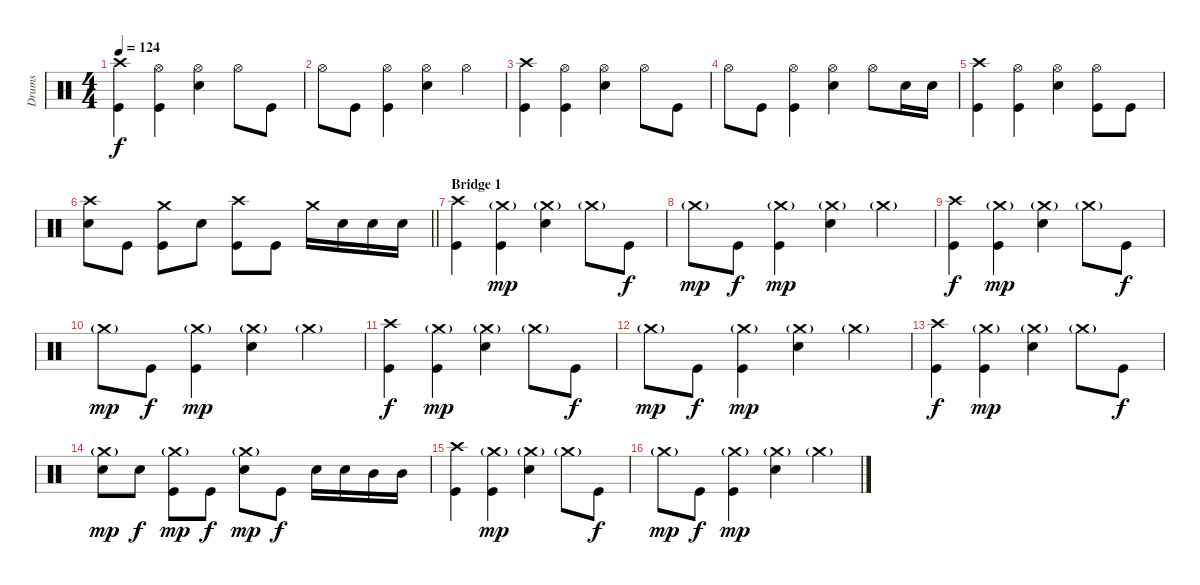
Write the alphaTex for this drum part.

\track ("Drums" "Drums") {instrument percussion}
\staff {score}
\articulation defaults
\ts (4 4)
\tempo 124
\clef neutral
\ks c
("Crash high (hit)" "Kick (hit)").4{dy f} ("Hi-Hat (open)" "Kick (hit)").4 ("Hi-Hat (open)" "Snare (hit) 2").4 "Hi-Hat (open)".8 "Kick (hit)".8 |
"Hi-Hat (open)".8 "Kick (hit)".8 ("Hi-Hat (open)" "Kick (hit)").4 ("Hi-Hat (open)" "Snare (hit) 2").4 "Hi-Hat (open)".4 |
("Crash high (hit)" "Kick (hit)").4 ("Hi-Hat (open)" "Kick (hit)").4 ("Hi-Hat (open)" "Snare (hit) 2").4 "Hi-Hat (open)".8 "Kick (hit)".8 |
"Hi-Hat (open)".8 "Kick (hit)".8 ("Hi-Hat (open)" "Kick (hit)").4 ("Hi-Hat (open)" "Snare (hit) 2").4 "Hi-Hat (open)".8 "Snare (hit) 2".16 "Snare (hit) 2".16 |
("Crash high (hit)" "Kick (hit)").4 ("Hi-Hat (open)" "Kick (hit)").4 ("Hi-Hat (open)" "Snare (hit) 2").4 ("Hi-Hat (open)" "Kick (hit)").8 "Kick (hit)".8 |
\barLineRight lightlight
("Crash high (hit)" "Snare (hit) 2").8 "Kick (hit)".8 ("Crash medium (hit)" "Kick (hit)").8 "Snare (hit) 2".8 ("Crash high (hit)" "Kick (hit)").8 "Kick (hit)".8 "Crash medium (hit)".16 "Snare (hit) 2".16 "Snare (hit) 2".16 "Snare (hit) 2".16 |
\section ("" "Bridge 1")
("Crash high (hit)" "Kick (hit)").4 ("Crash medium (hit)"{g} "Kick (hit)").4{dy mp} ("Crash medium (hit)"{g} "Snare (hit) 2").4 "Crash medium (hit)"{g}.8 "Kick (hit)".8{dy f} |
"Crash medium (hit)"{g}.8{dy mp} "Kick (hit)".8{dy f} ("Crash medium (hit)"{g} "Kick (hit)").4{dy mp} ("Crash medium (hit)"{g} "Snare (hit) 2").4 "Crash medium (hit)"{g}.4 |
("Crash high (hit)" "Kick (hit)").4{dy f} ("Crash medium (hit)"{g} "Kick (hit)").4{dy mp} ("Crash medium (hit)"{g} "Snare (hit) 2").4 "Crash medium (hit)"{g}.8 "Kick (hit)".8{dy f} |
"Crash medium (hit)"{g}.8{dy mp} "Kick (hit)".8{dy f} ("Crash medium (hit)"{g} "Kick (hit)").4{dy mp} ("Crash medium (hit)"{g} "Snare (hit) 2").4 "Crash medium (hit)"{g}.4 |
("Crash high (hit)" "Kick (hit)").4{dy f} ("Crash medium (hit)"{g} "Kick (hit)").4{dy mp} ("Crash medium (hit)"{g} "Snare (hit) 2").4 "Crash medium (hit)"{g}.8 "Kick (hit)".8{dy f} |
"Crash medium (hit)"{g}.8{dy mp} "Kick (hit)".8{dy f} ("Crash medium (hit)"{g} "Kick (hit)").4{dy mp} ("Crash medium (hit)"{g} "Snare (hit) 2").4 "Crash medium (hit)"{g}.4 |
("Crash high (hit)" "Kick (hit)").4{dy f} ("Crash medium (hit)"{g} "Kick (hit)").4{dy mp} ("Crash medium (hit)"{g} "Snare (hit) 2").4 "Crash medium (hit)"{g}.8 "Kick (hit)".8{dy f} |
("Crash medium (hit)"{g} "Snare (hit) 2").8{dy mp} "Snare (hit) 2".8{dy f} ("Crash medium (hit)"{g} "Kick (hit)").8{dy mp} "Kick (hit)".8{dy f} ("Crash medium (hit)"{g} "Snare (hit) 2").8{dy mp} "Kick (hit)".8{dy f} "Snare (hit) 2".16 "Snare (hit) 2".16 "Mid Tom (hit)".16 "Mid Tom (hit)".16 |
("Crash high (hit)" "Kick (hit)").4 ("Crash medium (hit)"{g} "Kick (hit)").4{dy mp} ("Crash medium (hit)"{g} "Snare (hit) 2").4 "Crash medium (hit)"{g}.8 "Kick (hit)".8{dy f} |
"Crash medium (hit)"{g}.8{dy mp} "Kick (hit)".8{dy f} ("Crash medium (hit)"{g} "Kick (hit)").4{dy mp} ("Crash medium (hit)"{g} "Snare (hit) 2").4 "Crash medium (hit)"{g}.4
